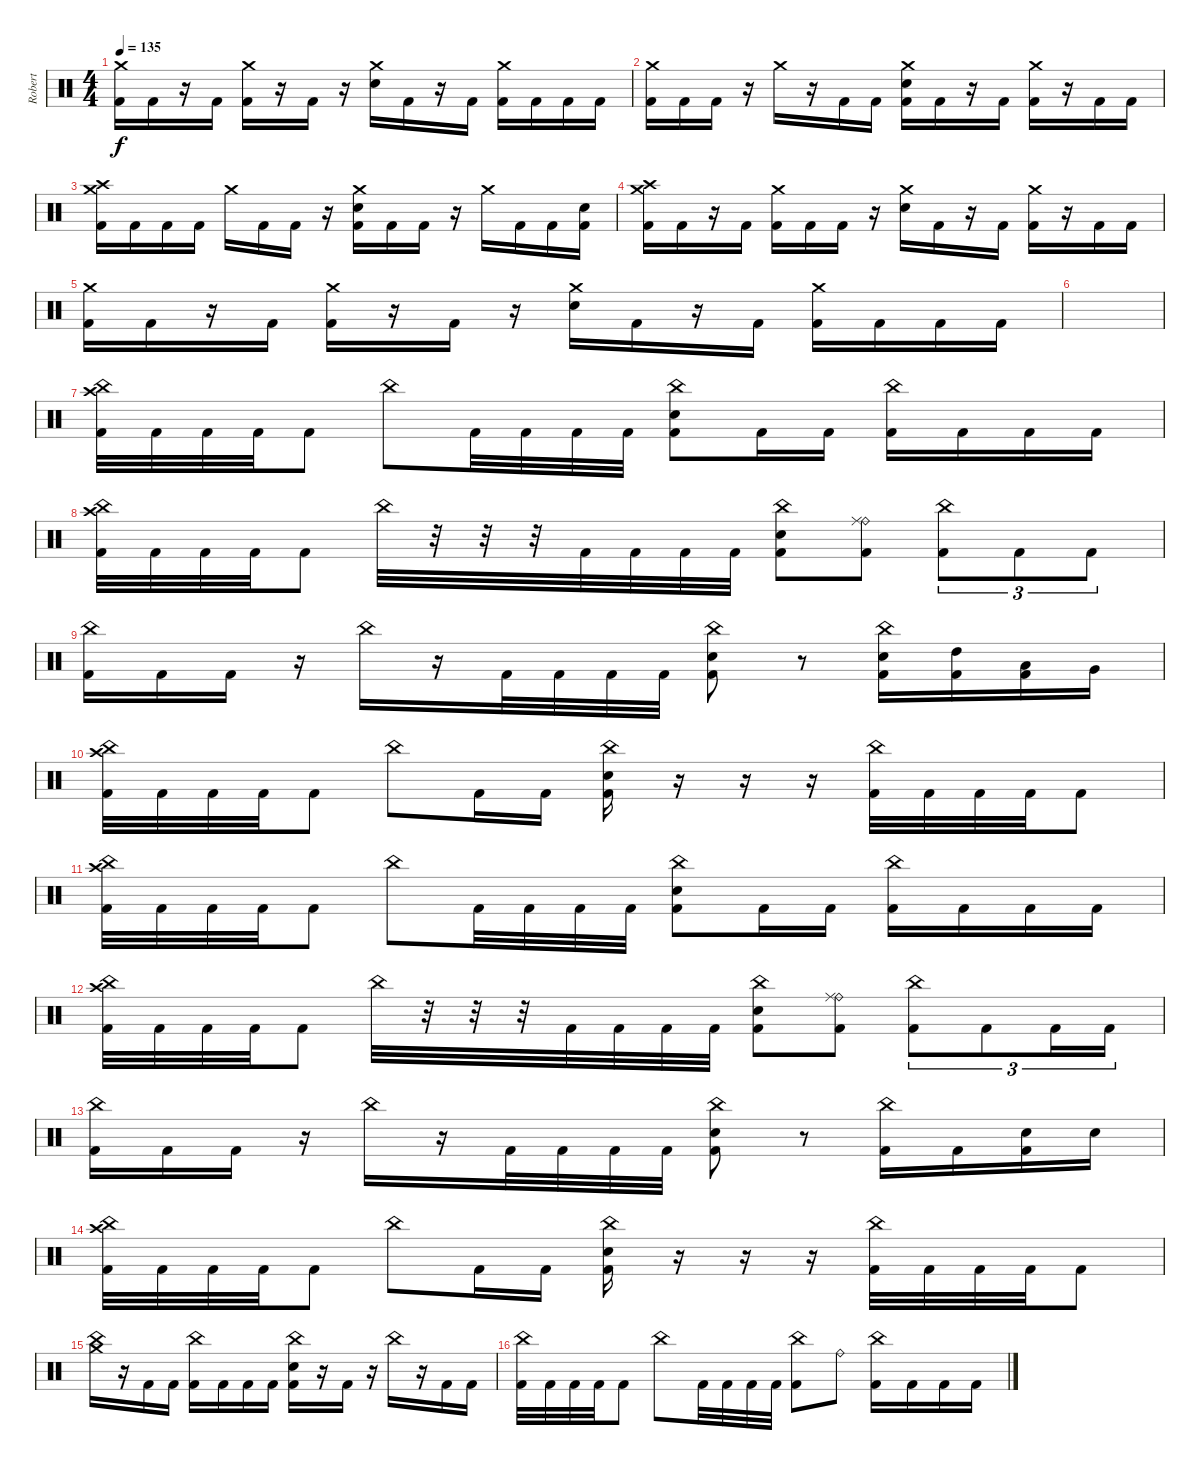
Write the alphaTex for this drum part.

\track ("Robert" "Robert") {instrument percussion}
\staff {score}
\articulation defaults
\ts (4 4)
\tempo 135
\clef neutral
\ks c
("Crash medium (hit)" "Kick (hit) 2").16{dy f} "Kick (hit) 2".16 r.16 "Kick (hit) 2".16 ("Crash medium (hit)" "Kick (hit) 2").16 r.16 "Kick (hit) 2".16 r.16 ("Crash medium (hit)" "Electric Snare (hit)").16 "Kick (hit) 2".16 r.16 "Kick (hit) 2".16 ("Crash medium (hit)" "Kick (hit) 2").16 "Kick (hit) 2".16 "Kick (hit) 2".16 "Kick (hit) 2".16 |
("Crash medium (hit)" "Kick (hit) 2").16 "Kick (hit) 2".16 "Kick (hit) 2".16 r.16 "Crash medium (hit)".16 r.16 "Kick (hit) 2".16 "Kick (hit) 2".16 ("Crash medium (hit)" "Electric Snare (hit)" "Kick (hit) 2").16 "Kick (hit) 2".16 r.16 "Kick (hit) 2".16 ("Crash medium (hit)" "Kick (hit) 2").16 r.16 "Kick (hit) 2".16 "Kick (hit) 2".16 |
("Crash medium (hit)" "Crash high (hit)" "Kick (hit) 2").16 "Kick (hit) 2".16 "Kick (hit) 2".16 "Kick (hit) 2".16 "Crash medium (hit)".16 "Kick (hit) 2".16 "Kick (hit) 2".16 r.16 ("Crash medium (hit)" "Kick (hit) 2" "Electric Snare (hit)").16 "Kick (hit) 2".16 "Kick (hit) 2".16 r.16 "Crash medium (hit)".16 "Kick (hit) 2".16 "Kick (hit) 2".16 ("Kick (hit) 2" "Electric Snare (hit)").16 |
("Crash high (hit)" "Crash medium (hit)" "Kick (hit) 2").16 "Kick (hit) 2".16 r.16 "Kick (hit) 2".16 ("Crash medium (hit)" "Kick (hit) 2").16 "Kick (hit) 2".16 "Kick (hit) 2".16 r.16 ("Crash medium (hit)" "Electric Snare (hit)").16 "Kick (hit) 2".16 r.16 "Kick (hit) 2".16 ("Crash medium (hit)" "Kick (hit) 2").16 r.16 "Kick (hit) 2".16 "Kick (hit) 2".16 |
("Crash medium (hit)" "Kick (hit) 2").16 "Kick (hit) 2".16 r.16 "Kick (hit) 2".16 ("Crash medium (hit)" "Kick (hit) 2").16 r.16 "Kick (hit) 2".16 r.16 ("Crash medium (hit)" "Electric Snare (hit)").16 "Kick (hit) 2".16 r.16 "Kick (hit) 2".16 ("Crash medium (hit)" "Kick (hit) 2").16 "Kick (hit) 2".16 "Kick (hit) 2".16 "Kick (hit) 2".16 |
|
("Crash high (hit)" "China (hit)" "Kick (hit) 2").32 "Kick (hit) 2".32 "Kick (hit) 2".32 "Kick (hit) 2".32 "Kick (hit) 2".8 "China (hit)".8 "Kick (hit) 2".32 "Kick (hit) 2".32 "Kick (hit) 2".32 "Kick (hit) 2".32 ("China (hit)" "Electric Snare (hit)" "Kick (hit) 2").8 "Kick (hit) 2".16 "Kick (hit) 2".16 ("China (hit)" "Kick (hit) 2").16 "Kick (hit) 2".16 "Kick (hit) 2".16 "Kick (hit) 2".16 |
("Crash high (hit)" "China (hit)" "Kick (hit) 2").32 "Kick (hit) 2".32 "Kick (hit) 2".32 "Kick (hit) 2".32 "Kick (hit) 2".8 "China (hit)".32 r.32 r.32 r.32 "Kick (hit) 2".32 "Kick (hit) 2".32 "Kick (hit) 2".32 "Kick (hit) 2".32 ("Electric Snare (hit)" "China (hit)" "Kick (hit) 2").8 ("Ride (bell)" "Kick (hit) 2" "Ride (middle)").8 ("Kick (hit) 2" "China (hit)").8{tu (3 2)} "Kick (hit) 2".8{tu (3 2)} "Kick (hit) 2".8{tu (3 2)} |
("China (hit)" "Kick (hit) 2").16 "Kick (hit) 2".16 "Kick (hit) 2".16 r.16 "China (hit)".16 r.16 "Kick (hit) 2".32 "Kick (hit) 2".32 "Kick (hit) 2".32 "Kick (hit) 2".32 ("China (hit)" "Electric Snare (hit)" "Kick (hit) 2").8 r.8 ("China (hit)" "Electric Snare (hit)" "Kick (hit) 2").16 ("High Tom (hit)" "Kick (hit) 2").16 ("Low Tom (hit)" "Kick (hit) 2").16 "Very Low Tom (hit)".16 |
("China (hit)" "Crash high (hit)" "Kick (hit) 2").32 "Kick (hit) 2".32 "Kick (hit) 2".32 "Kick (hit) 2".32 "Kick (hit) 2".8 "China (hit)".8 "Kick (hit) 2".16 "Kick (hit) 2".16 ("China (hit)" "Electric Snare (hit)" "Kick (hit) 2").16 r.16 r.16 r.16 ("China (hit)" "Kick (hit) 2").32 "Kick (hit) 2".32 "Kick (hit) 2".32 "Kick (hit) 2".32 "Kick (hit) 2".8 |
("Crash high (hit)" "China (hit)" "Kick (hit) 2").32 "Kick (hit) 2".32 "Kick (hit) 2".32 "Kick (hit) 2".32 "Kick (hit) 2".8 "China (hit)".8 "Kick (hit) 2".32 "Kick (hit) 2".32 "Kick (hit) 2".32 "Kick (hit) 2".32 ("China (hit)" "Electric Snare (hit)" "Kick (hit) 2").8 "Kick (hit) 2".16 "Kick (hit) 2".16 ("China (hit)" "Kick (hit) 2").16 "Kick (hit) 2".16 "Kick (hit) 2".16 "Kick (hit) 2".16 |
("Crash high (hit)" "China (hit)" "Kick (hit) 2").32 "Kick (hit) 2".32 "Kick (hit) 2".32 "Kick (hit) 2".32 "Kick (hit) 2".8 "China (hit)".32 r.32 r.32 r.32 "Kick (hit) 2".32 "Kick (hit) 2".32 "Kick (hit) 2".32 "Kick (hit) 2".32 ("Electric Snare (hit)" "China (hit)" "Kick (hit) 2").8 ("Ride (bell)" "Kick (hit) 2" "Ride (middle)").8 ("Kick (hit) 2" "China (hit)").8{tu (3 2)} "Kick (hit) 2".8{tu (3 2)} "Kick (hit) 2".16{tu (3 2)} "Kick (hit) 2".16{tu (3 2)} |
("China (hit)" "Kick (hit) 2").16 "Kick (hit) 2".16 "Kick (hit) 2".16 r.16 "China (hit)".16 r.16 "Kick (hit) 2".32 "Kick (hit) 2".32 "Kick (hit) 2".32 "Kick (hit) 2".32 ("China (hit)" "Electric Snare (hit)" "Kick (hit) 2").8 r.8 ("China (hit)" "Kick (hit) 2").16 "Kick (hit) 2".16 ("Electric Snare (hit)" "Kick (hit) 2").16 "Electric Snare (hit)".16 |
("China (hit)" "Crash high (hit)" "Kick (hit) 2").32 "Kick (hit) 2".32 "Kick (hit) 2".32 "Kick (hit) 2".32 "Kick (hit) 2".8 "China (hit)".8 "Kick (hit) 2".16 "Kick (hit) 2".16 ("China (hit)" "Electric Snare (hit)" "Kick (hit) 2").16 r.16 r.16 r.16 ("China (hit)" "Kick (hit) 2").32 "Kick (hit) 2".32 "Kick (hit) 2".32 "Kick (hit) 2".32 "Kick (hit) 2".8 |
("Crash medium (hit)" "China (hit)").16 r.16 "Kick (hit) 2".16 "Kick (hit) 2".16 ("China (hit)" "Kick (hit) 2").16 "Kick (hit) 2".16 "Kick (hit) 2".16 "Kick (hit) 2".16 ("China (hit)" "Electric Snare (hit)" "Kick (hit) 2").16 r.16 "Kick (hit) 2".16 r.16 "China (hit)".16 r.16 "Kick (hit) 2".16 "Kick (hit) 2".16 |
("China (hit)" "Kick (hit) 2").32 "Kick (hit) 2".32 "Kick (hit) 2".32 "Kick (hit) 2".32 "Kick (hit) 2".8 "China (hit)".8 "Kick (hit) 2".32 "Kick (hit) 2".32 "Kick (hit) 2".32 "Kick (hit) 2".32 ("China (hit)" "Kick (hit) 2").8 "Ride (bell)"{nh}.8 ("China (hit)" "Kick (hit) 2").16 "Kick (hit) 2".16 "Kick (hit) 2".16 "Kick (hit) 2".16
